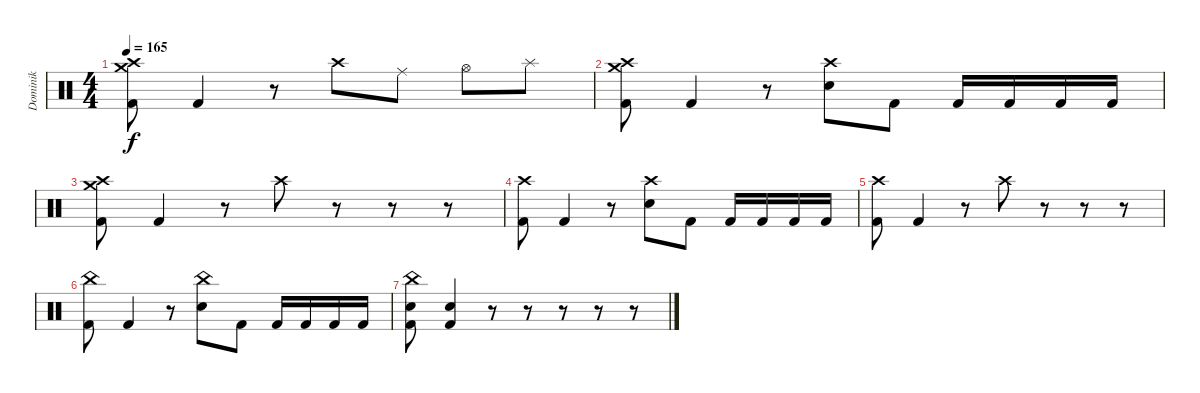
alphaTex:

\track ("Dominik" "Dominik") {instrument percussion}
\staff {score}
\articulation defaults
\ts (4 4)
\tempo 165
\clef neutral
\ks c
("Crash high (hit)" "Crash medium (hit)" "Kick (hit) 2").8{dy f} "Kick (hit) 2".4 r.8 "Crash high (hit)".8 "Ride (middle)".8 "Hi-Hat (open)".8 "Splash (hit)".8 |
("Crash high (hit)" "Crash medium (hit)" "Kick (hit) 2").8 "Kick (hit) 2".4 r.8 ("Crash high (hit)" "Electric Snare (hit)").8 "Kick (hit) 2".8 "Kick (hit) 2".16 "Kick (hit) 2".16 "Kick (hit) 2".16 "Kick (hit) 2".16 |
("Crash high (hit)" "Crash medium (hit)" "Kick (hit) 2").8 "Kick (hit) 2".4 r.8 "Crash high (hit)".8 r.8 r.8 r.8 |
("Crash high (hit)" "Kick (hit) 2").8 "Kick (hit) 2".4 r.8 ("Crash high (hit)" "Electric Snare (hit)").8 "Kick (hit) 2".8 "Kick (hit) 2".16 "Kick (hit) 2".16 "Kick (hit) 2".16 "Kick (hit) 2".16 |
("Crash high (hit)" "Kick (hit) 2").8 "Kick (hit) 2".4 r.8 "Crash high (hit)".8 r.8 r.8 r.8 |
("China (hit)" "Kick (hit) 2").8 "Kick (hit) 2".4 r.8 ("China (hit)" "Electric Snare (hit)").8 "Kick (hit) 2".8 "Kick (hit) 2".16 "Kick (hit) 2".16 "Kick (hit) 2".16 "Kick (hit) 2".16 |
("China (hit)" "Electric Snare (hit)" "Kick (hit) 2").8 ("Electric Snare (hit)" "Kick (hit) 2").4 r.8 r.8 r.8 r.8 r.8
